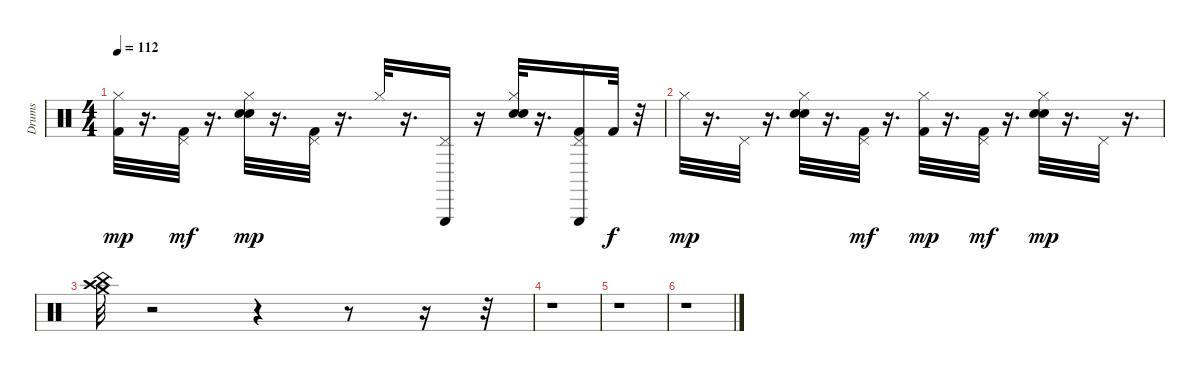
\track ("Drums" "Drums") {instrument percussion}
\staff {score}
\articulation defaults
\ts (4 4)
\tempo 112
\clef neutral
\ks c
("Hi-Hat (closed)" "Kick (hit) 2").32{dy mp} r.16{d} ("Pedal Hi-Hat (hit)" "Kick (hit) 2").32{dy mf} r.16{d} ("Hi-Hat (closed)" "Electric Snare (hit)" "Hand Clap (hit)").32{dy mp} r.16{d} ("Pedal Hi-Hat (hit)" "Kick (hit) 2").32 r.16{d} "Hi-Hat (closed)".32 r.16{d} ("Triangle (hit)" "Pedal Hi-Hat (hit)").16 r.16 ("Hi-Hat (closed)" "Electric Snare (hit)" "Hand Clap (hit)").32 r.16{d} ("Triangle (hit)" "Pedal Hi-Hat (hit)" "Kick (hit) 2").16 "Kick (hit) 2".32{dy f} r.32 |
"Hi-Hat (closed)".32{dy mp} r.16{d} "Pedal Hi-Hat (hit)".32 r.16{d} ("Hi-Hat (closed)" "Electric Snare (hit)" "Hand Clap (hit)").32 r.16{d} ("Pedal Hi-Hat (hit)" "Kick (hit) 2").32{dy mf} r.16{d} ("Hi-Hat (closed)" "Kick (hit) 2").32{dy mp} r.16{d} ("Pedal Hi-Hat (hit)" "Kick (hit) 2").32{dy mf} r.16{d} ("Hi-Hat (closed)" "Electric Snare (hit)" "Hand Clap (hit)").32{dy mp} r.16{d} "Pedal Hi-Hat (hit)".32 r.16{d} |
("China (hit)" "Crash high (hit)" "Crash medium (hit)").32 r.2 r.4 r.8 r.16 r.32 |
r.1 |
r.1 |
r.1
